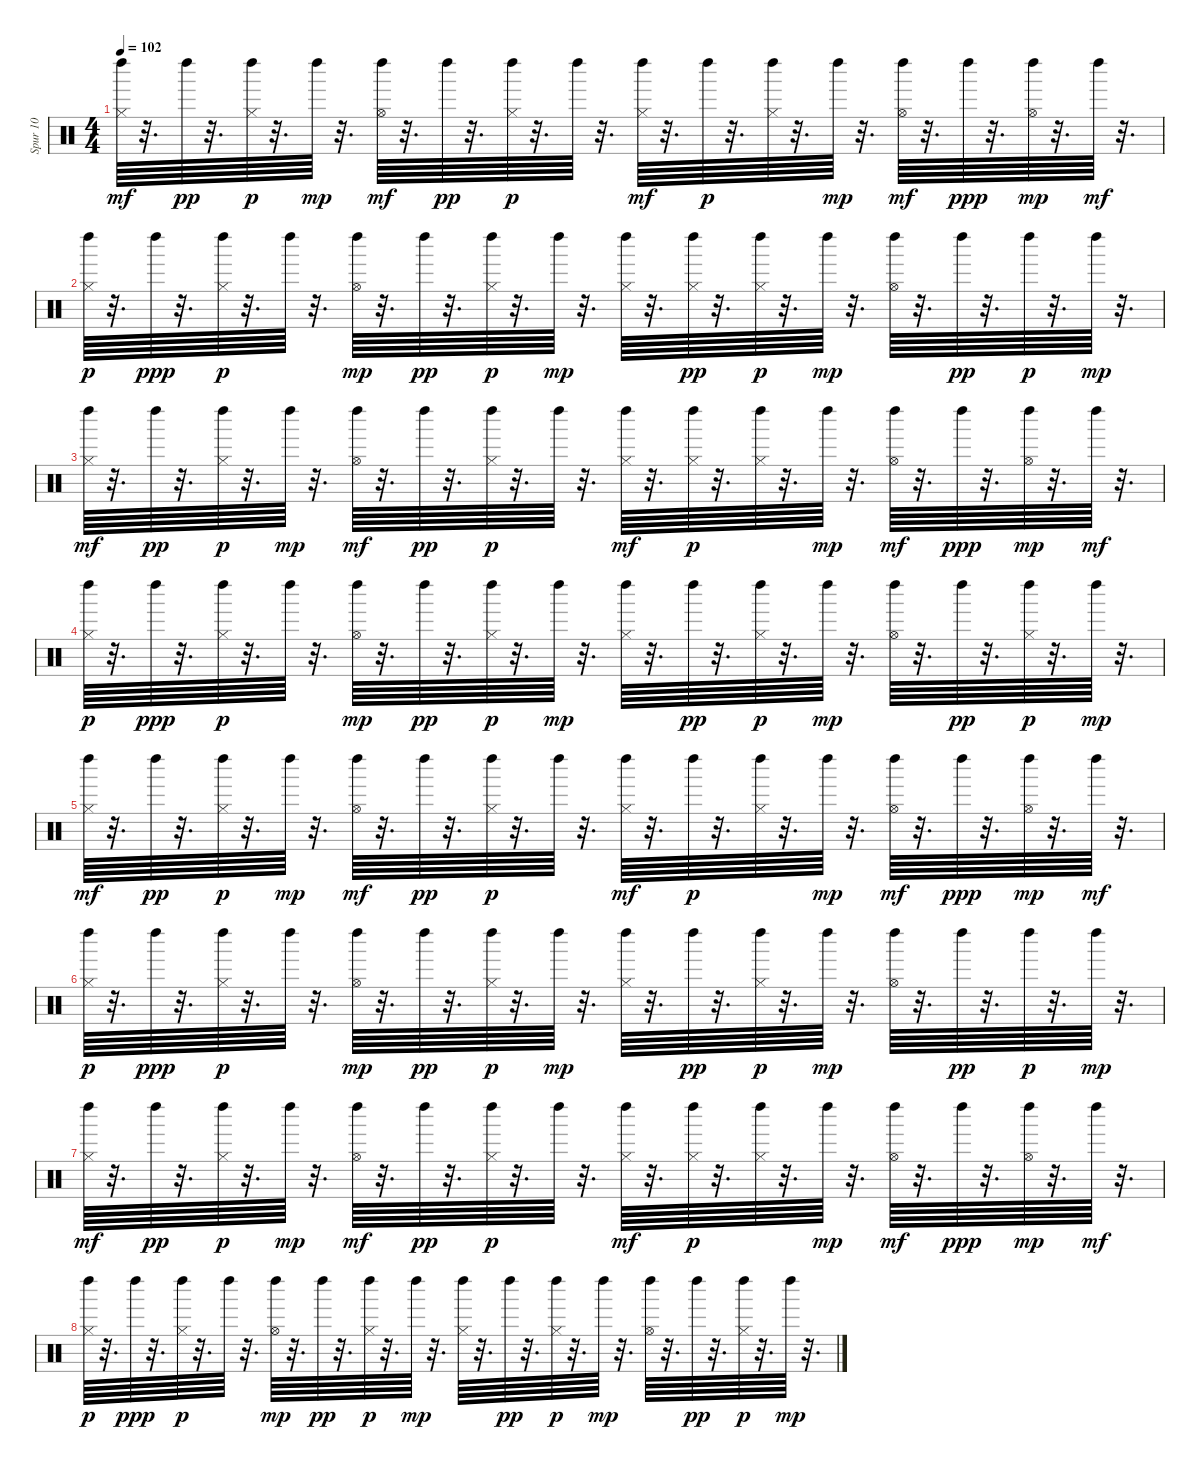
\track ("Spur 10" "Spur 10") {instrument percussion}
\staff {score}
\articulation defaults
\ts (4 4)
\tempo 102
\clef neutral
\ks c
("Hi-Hat (closed)" "Left Maraca (hit)").64{dy mf} r.32{d} "Left Maraca (hit)".64{dy pp} r.32{d} ("Hi-Hat (closed)" "Left Maraca (hit)").64{dy p} r.32{d} "Left Maraca (hit)".64{dy mp} r.32{d} ("Hi-Hat (open)" "Left Maraca (hit)").64{dy mf} r.32{d} "Left Maraca (hit)".64{dy pp} r.32{d} ("Hi-Hat (closed)" "Left Maraca (hit)").64{dy p} r.32{d} "Left Maraca (hit)".64 r.32{d} ("Hi-Hat (closed)" "Left Maraca (hit)").64{dy mf} r.32{d} "Left Maraca (hit)".64{dy p} r.32{d} ("Hi-Hat (closed)" "Left Maraca (hit)").64 r.32{d} "Left Maraca (hit)".64{dy mp} r.32{d} ("Hi-Hat (open)" "Left Maraca (hit)").64{dy mf} r.32{d} "Left Maraca (hit)".64{dy ppp} r.32{d} ("Hi-Hat (open)" "Left Maraca (hit)").64{dy mp} r.32{d} "Left Maraca (hit)".64{dy mf} r.32{d} |
("Hi-Hat (closed)" "Left Maraca (hit)").64{dy p} r.32{d} "Left Maraca (hit)".64{dy ppp} r.32{d} ("Hi-Hat (closed)" "Left Maraca (hit)").64{dy p} r.32{d} "Left Maraca (hit)".64 r.32{d} ("Hi-Hat (open)" "Left Maraca (hit)").64{dy mp} r.32{d} "Left Maraca (hit)".64{dy pp} r.32{d} ("Hi-Hat (closed)" "Left Maraca (hit)").64{dy p} r.32{d} "Left Maraca (hit)".64{dy mp} r.32{d} ("Hi-Hat (closed)" "Left Maraca (hit)").64 r.32{d} ("Hi-Hat (closed)" "Left Maraca (hit)").64{dy pp} r.32{d} ("Hi-Hat (closed)" "Left Maraca (hit)").64{dy p} r.32{d} "Left Maraca (hit)".64{dy mp} r.32{d} ("Hi-Hat (open)" "Left Maraca (hit)").64 r.32{d} "Left Maraca (hit)".64{dy pp} r.32{d} "Left Maraca (hit)".64{dy p} r.32{d} "Left Maraca (hit)".64{dy mp} r.32{d} |
("Hi-Hat (closed)" "Left Maraca (hit)").64{dy mf} r.32{d} "Left Maraca (hit)".64{dy pp} r.32{d} ("Hi-Hat (closed)" "Left Maraca (hit)").64{dy p} r.32{d} "Left Maraca (hit)".64{dy mp} r.32{d} ("Hi-Hat (open)" "Left Maraca (hit)").64{dy mf} r.32{d} "Left Maraca (hit)".64{dy pp} r.32{d} ("Hi-Hat (closed)" "Left Maraca (hit)").64{dy p} r.32{d} "Left Maraca (hit)".64 r.32{d} ("Hi-Hat (closed)" "Left Maraca (hit)").64{dy mf} r.32{d} ("Hi-Hat (closed)" "Left Maraca (hit)").64{dy p} r.32{d} ("Hi-Hat (closed)" "Left Maraca (hit)").64 r.32{d} "Left Maraca (hit)".64{dy mp} r.32{d} ("Hi-Hat (open)" "Left Maraca (hit)").64{dy mf} r.32{d} "Left Maraca (hit)".64{dy ppp} r.32{d} ("Hi-Hat (open)" "Left Maraca (hit)").64{dy mp} r.32{d} "Left Maraca (hit)".64{dy mf} r.32{d} |
("Hi-Hat (closed)" "Left Maraca (hit)").64{dy p} r.32{d} "Left Maraca (hit)".64{dy ppp} r.32{d} ("Hi-Hat (closed)" "Left Maraca (hit)").64{dy p} r.32{d} "Left Maraca (hit)".64 r.32{d} ("Hi-Hat (open)" "Left Maraca (hit)").64{dy mp} r.32{d} "Left Maraca (hit)".64{dy pp} r.32{d} ("Hi-Hat (closed)" "Left Maraca (hit)").64{dy p} r.32{d} "Left Maraca (hit)".64{dy mp} r.32{d} ("Hi-Hat (closed)" "Left Maraca (hit)").64 r.32{d} "Left Maraca (hit)".64{dy pp} r.32{d} ("Hi-Hat (closed)" "Left Maraca (hit)").64{dy p} r.32{d} "Left Maraca (hit)".64{dy mp} r.32{d} ("Hi-Hat (open)" "Left Maraca (hit)").64 r.32{d} "Left Maraca (hit)".64{dy pp} r.32{d} ("Hi-Hat (closed)" "Left Maraca (hit)").64{dy p} r.32{d} "Left Maraca (hit)".64{dy mp} r.32{d} |
("Hi-Hat (closed)" "Left Maraca (hit)").64{dy mf} r.32{d} "Left Maraca (hit)".64{dy pp} r.32{d} ("Hi-Hat (closed)" "Left Maraca (hit)").64{dy p} r.32{d} "Left Maraca (hit)".64{dy mp} r.32{d} ("Hi-Hat (open)" "Left Maraca (hit)").64{dy mf} r.32{d} "Left Maraca (hit)".64{dy pp} r.32{d} ("Hi-Hat (closed)" "Left Maraca (hit)").64{dy p} r.32{d} "Left Maraca (hit)".64 r.32{d} ("Hi-Hat (closed)" "Left Maraca (hit)").64{dy mf} r.32{d} "Left Maraca (hit)".64{dy p} r.32{d} ("Hi-Hat (closed)" "Left Maraca (hit)").64 r.32{d} "Left Maraca (hit)".64{dy mp} r.32{d} ("Hi-Hat (open)" "Left Maraca (hit)").64{dy mf} r.32{d} "Left Maraca (hit)".64{dy ppp} r.32{d} ("Hi-Hat (open)" "Left Maraca (hit)").64{dy mp} r.32{d} "Left Maraca (hit)".64{dy mf} r.32{d} |
("Hi-Hat (closed)" "Left Maraca (hit)").64{dy p} r.32{d} "Left Maraca (hit)".64{dy ppp} r.32{d} ("Hi-Hat (closed)" "Left Maraca (hit)").64{dy p} r.32{d} "Left Maraca (hit)".64 r.32{d} ("Hi-Hat (open)" "Left Maraca (hit)").64{dy mp} r.32{d} "Left Maraca (hit)".64{dy pp} r.32{d} ("Hi-Hat (closed)" "Left Maraca (hit)").64{dy p} r.32{d} "Left Maraca (hit)".64{dy mp} r.32{d} ("Hi-Hat (closed)" "Left Maraca (hit)").64 r.32{d} "Left Maraca (hit)".64{dy pp} r.32{d} ("Hi-Hat (closed)" "Left Maraca (hit)").64{dy p} r.32{d} "Left Maraca (hit)".64{dy mp} r.32{d} ("Hi-Hat (open)" "Left Maraca (hit)").64 r.32{d} "Left Maraca (hit)".64{dy pp} r.32{d} "Left Maraca (hit)".64{dy p} r.32{d} "Left Maraca (hit)".64{dy mp} r.32{d} |
("Hi-Hat (closed)" "Left Maraca (hit)").64{dy mf} r.32{d} "Left Maraca (hit)".64{dy pp} r.32{d} ("Hi-Hat (closed)" "Left Maraca (hit)").64{dy p} r.32{d} "Left Maraca (hit)".64{dy mp} r.32{d} ("Hi-Hat (open)" "Left Maraca (hit)").64{dy mf} r.32{d} "Left Maraca (hit)".64{dy pp} r.32{d} ("Hi-Hat (closed)" "Left Maraca (hit)").64{dy p} r.32{d} "Left Maraca (hit)".64 r.32{d} ("Hi-Hat (closed)" "Left Maraca (hit)").64{dy mf} r.32{d} ("Hi-Hat (closed)" "Left Maraca (hit)").64{dy p} r.32{d} ("Hi-Hat (closed)" "Left Maraca (hit)").64 r.32{d} "Left Maraca (hit)".64{dy mp} r.32{d} ("Hi-Hat (open)" "Left Maraca (hit)").64{dy mf} r.32{d} "Left Maraca (hit)".64{dy ppp} r.32{d} ("Hi-Hat (open)" "Left Maraca (hit)").64{dy mp} r.32{d} "Left Maraca (hit)".64{dy mf} r.32{d} |
("Hi-Hat (closed)" "Left Maraca (hit)").64{dy p} r.32{d} "Left Maraca (hit)".64{dy ppp} r.32{d} ("Hi-Hat (closed)" "Left Maraca (hit)").64{dy p} r.32{d} "Left Maraca (hit)".64 r.32{d} ("Hi-Hat (open)" "Left Maraca (hit)").64{dy mp} r.32{d} "Left Maraca (hit)".64{dy pp} r.32{d} ("Hi-Hat (closed)" "Left Maraca (hit)").64{dy p} r.32{d} "Left Maraca (hit)".64{dy mp} r.32{d} ("Hi-Hat (closed)" "Left Maraca (hit)").64 r.32{d} "Left Maraca (hit)".64{dy pp} r.32{d} ("Hi-Hat (closed)" "Left Maraca (hit)").64{dy p} r.32{d} "Left Maraca (hit)".64{dy mp} r.32{d} ("Hi-Hat (open)" "Left Maraca (hit)").64 r.32{d} "Left Maraca (hit)".64{dy pp} r.32{d} ("Hi-Hat (closed)" "Left Maraca (hit)").64{dy p} r.32{d} "Left Maraca (hit)".64{dy mp} r.32{d}
